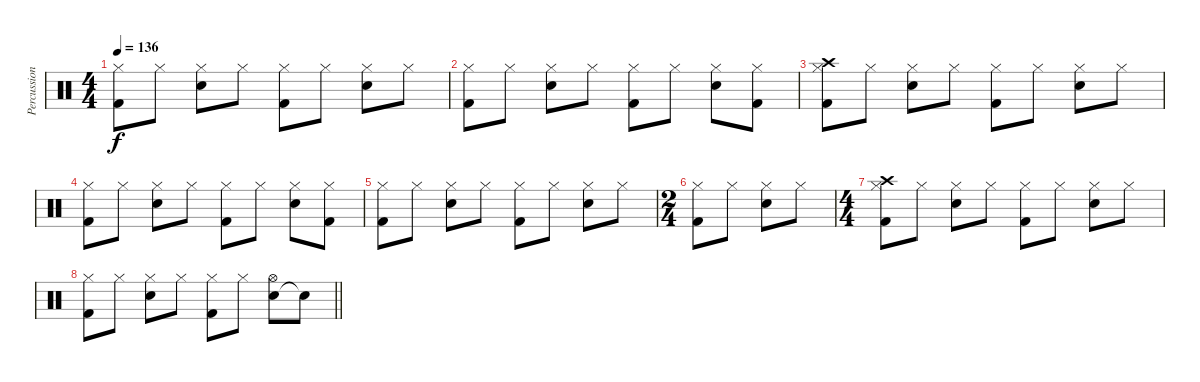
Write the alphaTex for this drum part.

\track ("Percussioni" "Percussion") {instrument percussion}
\staff {score}
\articulation defaults
\ts (4 4)
\tempo 136
\clef neutral
\ks c
("Kick (hit) 2" "Hi-Hat (closed)").8{dy f} "Hi-Hat (closed)".8 ("Snare (hit) 2" "Hi-Hat (closed)").8 "Hi-Hat (closed)".8 ("Kick (hit) 2" "Hi-Hat (closed)").8 "Hi-Hat (closed)".8 ("Snare (hit) 2" "Hi-Hat (closed)").8 "Hi-Hat (closed)".8 |
("Kick (hit) 2" "Hi-Hat (closed)").8 "Hi-Hat (closed)".8 ("Snare (hit) 2" "Hi-Hat (closed)").8 "Hi-Hat (closed)".8 ("Kick (hit) 2" "Hi-Hat (closed)").8 "Hi-Hat (closed)".8 ("Snare (hit) 2" "Hi-Hat (closed)").8 ("Kick (hit) 2" "Hi-Hat (closed)").8 |
("Kick (hit) 2" "Hi-Hat (closed)" "Crash high (hit)").8 "Hi-Hat (closed)".8 ("Snare (hit) 2" "Hi-Hat (closed)").8 "Hi-Hat (closed)".8 ("Kick (hit) 2" "Hi-Hat (closed)").8 "Hi-Hat (closed)".8 ("Snare (hit) 2" "Hi-Hat (closed)").8 "Hi-Hat (closed)".8 |
("Kick (hit) 2" "Hi-Hat (closed)").8 "Hi-Hat (closed)".8 ("Snare (hit) 2" "Hi-Hat (closed)").8 "Hi-Hat (closed)".8 ("Kick (hit) 2" "Hi-Hat (closed)").8 "Hi-Hat (closed)".8 ("Snare (hit) 2" "Hi-Hat (closed)").8 ("Kick (hit) 2" "Hi-Hat (closed)").8 |
("Kick (hit) 2" "Hi-Hat (closed)").8 "Hi-Hat (closed)".8 ("Snare (hit) 2" "Hi-Hat (closed)").8 "Hi-Hat (closed)".8 ("Kick (hit) 2" "Hi-Hat (closed)").8 "Hi-Hat (closed)".8 ("Snare (hit) 2" "Hi-Hat (closed)").8 "Hi-Hat (closed)".8 |
\ts (2 4)
("Kick (hit) 2" "Hi-Hat (closed)").8 "Hi-Hat (closed)".8 ("Snare (hit) 2" "Hi-Hat (closed)").8 "Hi-Hat (closed)".8 |
\ts (4 4)
("Kick (hit) 2" "Hi-Hat (closed)" "Crash high (hit)").8 "Hi-Hat (closed)".8 ("Snare (hit) 2" "Hi-Hat (closed)").8 "Hi-Hat (closed)".8 ("Kick (hit) 2" "Hi-Hat (closed)").8 "Hi-Hat (closed)".8 ("Snare (hit) 2" "Hi-Hat (closed)").8 "Hi-Hat (closed)".8 |
\barLineRight lightlight
("Kick (hit) 2" "Hi-Hat (closed)").8 "Hi-Hat (closed)".8 ("Snare (hit) 2" "Hi-Hat (closed)").8 "Hi-Hat (closed)".8 ("Kick (hit) 2" "Hi-Hat (closed)").8 "Hi-Hat (closed)".8 ("Snare (hit) 2" "Hi-Hat (open)").8 "Snare (hit)"{t}.8
